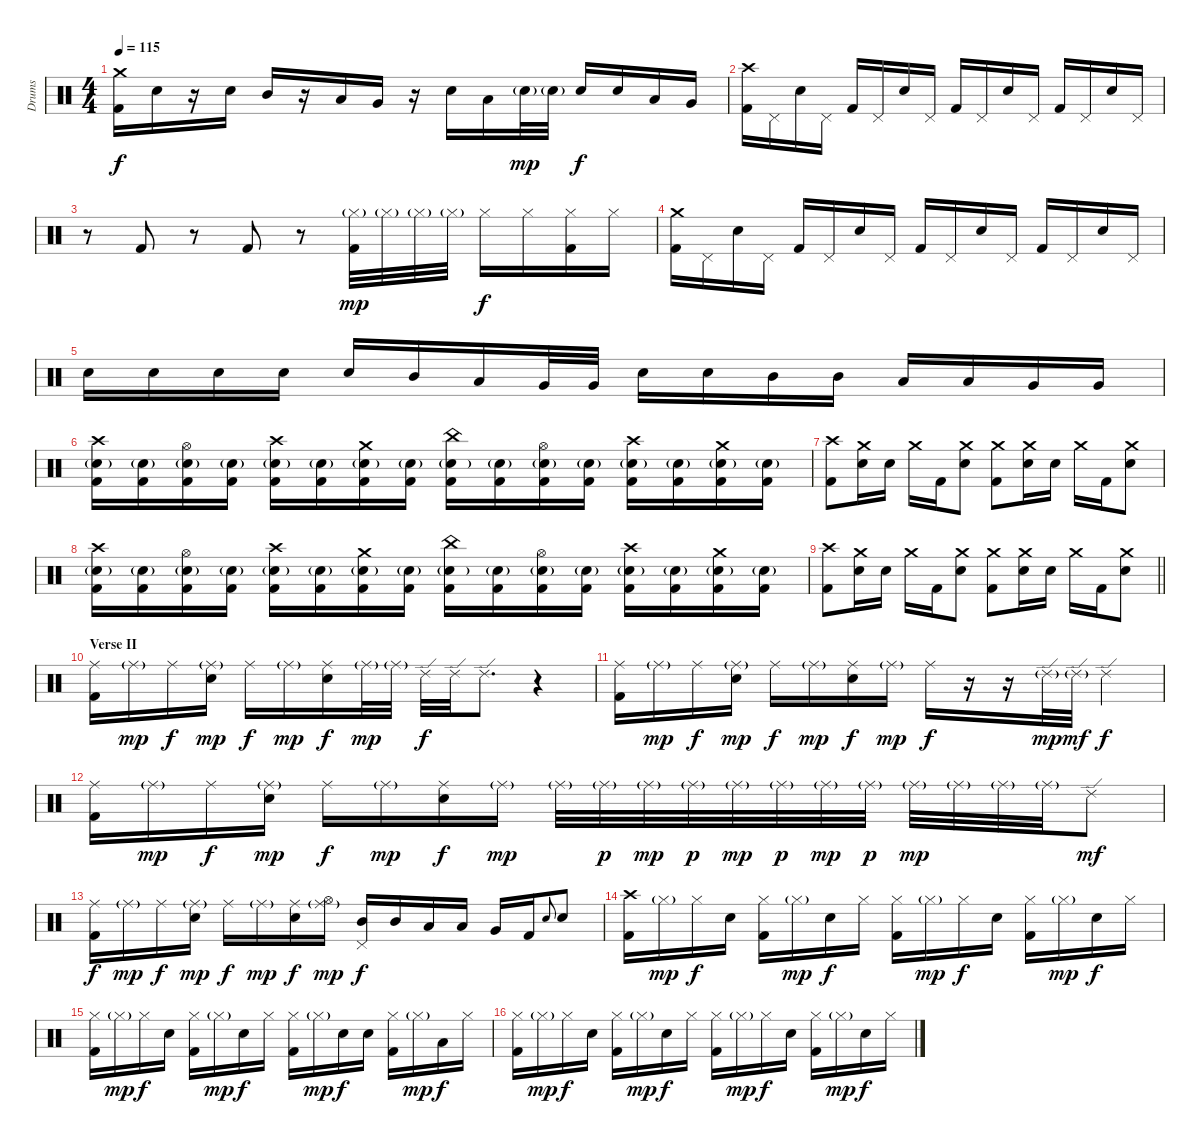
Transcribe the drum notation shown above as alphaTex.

\track ("Drums" "Drums") {instrument percussion}
\staff {score}
\articulation defaults
\ts (4 4)
\tempo 115
\clef neutral
\ks c
("Crash medium (hit)" "Kick (hit) 2").16{dy f} "Electric Snare (hit)".16 r.16 "Electric Snare (hit)".16 "Mid Tom (hit)".16 r.16 "Low Tom (hit)".16 "Very Low Tom (hit)".16 r.16 "Electric Snare (hit)".16 "Low Tom (hit)".16 "Electric Snare (hit)"{g}.32{dy mp} "Electric Snare (hit)"{g}.32 "Electric Snare (hit)".16{dy f} "Electric Snare (hit)".16 "Low Tom (hit)".16 "Very Low Tom (hit)".16 |
("Crash high (hit)" "Kick (hit) 2").16 "Pedal Hi-Hat (hit)".16 "Electric Snare (hit)".16 "Pedal Hi-Hat (hit)".16 "Kick (hit) 2".16 "Pedal Hi-Hat (hit)".16 "Electric Snare (hit)".16 "Pedal Hi-Hat (hit)".16 "Kick (hit) 2".16 "Pedal Hi-Hat (hit)".16 "Electric Snare (hit)".16 "Pedal Hi-Hat (hit)".16 "Kick (hit) 2".16 "Pedal Hi-Hat (hit)".16 "Electric Snare (hit)".16 "Pedal Hi-Hat (hit)".16 |
r.8 "Kick (hit) 2".8 r.8 "Kick (hit) 2".8 r.8 ("Hi-Hat (closed)"{g} "Kick (hit) 2").32{dy mp} "Hi-Hat (closed)"{g}.32 "Hi-Hat (closed)"{g}.32 "Hi-Hat (closed)"{g}.32 "Hi-Hat (closed)".16{dy f} "Hi-Hat (closed)".16 ("Hi-Hat (closed)" "Kick (hit) 2").16 "Hi-Hat (closed)".16 |
("Crash medium (hit)" "Kick (hit) 2").16 "Pedal Hi-Hat (hit)".16 "Electric Snare (hit)".16 "Pedal Hi-Hat (hit)".16 "Kick (hit) 2".16 "Pedal Hi-Hat (hit)".16 "Electric Snare (hit)".16 "Pedal Hi-Hat (hit)".16 "Kick (hit) 2".16 "Pedal Hi-Hat (hit)".16 "Electric Snare (hit)".16 "Pedal Hi-Hat (hit)".16 "Kick (hit) 2".16 "Pedal Hi-Hat (hit)".16 "Electric Snare (hit)".16 "Pedal Hi-Hat (hit)".16 |
"Electric Snare (hit)".16 "Electric Snare (hit)".16 "Electric Snare (hit)".16 "Electric Snare (hit)".16 "Electric Snare (hit)".16 "Mid Tom (hit)".16 "Low Tom (hit)".16 "Very Low Tom (hit)".32 "Very Low Tom (hit)".32 "Electric Snare (hit)".16 "Electric Snare (hit)".16 "Mid Tom (hit)".16 "Mid Tom (hit)".16 "Low Tom (hit)".16 "Low Tom (hit)".16 "Very Low Tom (hit)".16 "Very Low Tom (hit)".16 |
("Crash high (hit)" "Electric Snare (hit)"{g} "Kick (hit) 2").16 ("Electric Snare (hit)"{g} "Kick (hit) 2").16 ("Hi-Hat (open)" "Electric Snare (hit)"{g} "Kick (hit) 2").16 ("Electric Snare (hit)"{g} "Kick (hit) 2").16 ("Crash high (hit)" "Electric Snare (hit)"{g} "Kick (hit) 2").16 ("Electric Snare (hit)"{g} "Kick (hit) 2").16 ("Crash medium (hit)" "Electric Snare (hit)"{g} "Kick (hit) 2").16 ("Electric Snare (hit)"{g} "Kick (hit) 2").16 ("China (hit)" "Electric Snare (hit)"{g} "Kick (hit) 2").16 ("Electric Snare (hit)"{g} "Kick (hit) 2").16 ("Hi-Hat (open)" "Electric Snare (hit)"{g} "Kick (hit) 2").16 ("Electric Snare (hit)"{g} "Kick (hit) 2").16 ("Crash high (hit)" "Electric Snare (hit)"{g} "Kick (hit) 2").16 ("Electric Snare (hit)"{g} "Kick (hit) 2").16 ("Crash medium (hit)" "Electric Snare (hit)"{g} "Kick (hit) 2").16 ("Electric Snare (hit)"{g} "Kick (hit) 2").16 |
("Crash high (hit)" "Kick (hit) 2").8 ("Crash medium (hit)" "Electric Snare (hit)").16 "Electric Snare (hit)".16 "Crash medium (hit)".16 "Kick (hit) 2".16 ("Crash medium (hit)" "Electric Snare (hit)").8 ("Crash medium (hit)" "Kick (hit) 2").8 ("Crash medium (hit)" "Electric Snare (hit)").16 "Electric Snare (hit)".16 "Crash medium (hit)".16 "Kick (hit) 2".16 ("Crash medium (hit)" "Electric Snare (hit)").8 |
("Crash high (hit)" "Electric Snare (hit)"{g} "Kick (hit) 2").16 ("Electric Snare (hit)"{g} "Kick (hit) 2").16 ("Hi-Hat (open)" "Electric Snare (hit)"{g} "Kick (hit) 2").16 ("Electric Snare (hit)"{g} "Kick (hit) 2").16 ("Crash high (hit)" "Electric Snare (hit)"{g} "Kick (hit) 2").16 ("Electric Snare (hit)"{g} "Kick (hit) 2").16 ("Crash medium (hit)" "Electric Snare (hit)"{g} "Kick (hit) 2").16 ("Electric Snare (hit)"{g} "Kick (hit) 2").16 ("China (hit)" "Electric Snare (hit)"{g} "Kick (hit) 2").16 ("Electric Snare (hit)"{g} "Kick (hit) 2").16 ("Hi-Hat (open)" "Electric Snare (hit)"{g} "Kick (hit) 2").16 ("Electric Snare (hit)"{g} "Kick (hit) 2").16 ("Crash high (hit)" "Electric Snare (hit)"{g} "Kick (hit) 2").16 ("Electric Snare (hit)"{g} "Kick (hit) 2").16 ("Crash medium (hit)" "Electric Snare (hit)"{g} "Kick (hit) 2").16 ("Electric Snare (hit)"{g} "Kick (hit) 2").16 |
\barLineRight lightlight
("Crash high (hit)" "Kick (hit) 2").8 ("Crash medium (hit)" "Electric Snare (hit)").16 "Electric Snare (hit)".16 "Crash medium (hit)".16 "Kick (hit) 2".16 ("Crash medium (hit)" "Electric Snare (hit)").8 ("Crash medium (hit)" "Kick (hit) 2").8 ("Crash medium (hit)" "Electric Snare (hit)").16 "Electric Snare (hit)".16 "Crash medium (hit)".16 "Kick (hit) 2".16 ("Crash medium (hit)" "Electric Snare (hit)").8 |
\section ("" "Verse II")
("Ride (middle)" "Kick (hit) 2").16 "Ride (middle)"{g}.16{dy mp} "Ride (middle)".16{dy f} ("Ride (middle)"{g} "Electric Snare (hit)").16{dy mp} "Ride (middle)".16{dy f} "Ride (middle)"{g}.16{dy mp} ("Ride (middle)" "Electric Snare (hit)").16{dy f} "Ride (middle)"{g}.32{dy mp} "Ride (middle)"{g}.32 "Ride (edge) 2".32{dy f} "Ride (edge) 2".32 "Ride (edge) 2".8{d} r.4 |
("Ride (middle)" "Kick (hit) 2").16 "Ride (middle)"{g}.16{dy mp} "Ride (middle)".16{dy f} ("Ride (middle)"{g} "Electric Snare (hit)").16{dy mp} "Ride (middle)".16{dy f} "Ride (middle)"{g}.16{dy mp} ("Ride (middle)" "Electric Snare (hit)").16{dy f} "Ride (middle)"{g}.16{dy mp} "Ride (middle)".16{dy f} r.16 r.16 "Ride (edge) 2"{g}.32{dy mp} "Ride (edge) 2"{g}.32{dy mf} "Ride (edge) 2".4{dy f} |
("Ride (middle)" "Kick (hit) 2").16 "Ride (middle)"{g}.16{dy mp} "Ride (middle)".16{dy f} ("Ride (middle)"{g} "Electric Snare (hit)").16{dy mp} "Ride (middle)".16{dy f} "Ride (middle)"{g}.16{dy mp} ("Ride (middle)" "Electric Snare (hit)").16{dy f} "Ride (middle)"{g}.16{dy mp} "Ride (middle)"{g}.32 "Ride (middle)"{g}.32{dy p} "Ride (middle)"{g}.32{dy mp} "Ride (middle)"{g}.32{dy p} "Ride (middle)"{g}.32{dy mp} "Ride (middle)"{g}.32{dy p} "Ride (middle)"{g}.32{dy mp} "Ride (middle)"{g}.32{dy p} "Ride (middle)"{g}.32{dy mp} "Ride (middle)"{g}.32 "Ride (middle)"{g}.32 "Ride (middle)"{g}.32 "Ride (edge) 2".8{dy mf} |
("Ride (middle)" "Kick (hit) 2").16{dy f} "Ride (middle)"{g}.16{dy mp} "Ride (middle)".16{dy f} ("Ride (middle)"{g} "Electric Snare (hit)").16{dy mp} "Ride (middle)".16{dy f} "Ride (middle)"{g}.16{dy mp} ("Ride (middle)" "Electric Snare (hit)").16{dy f} ("Ride (middle)"{g} "Hi-Hat (open)").16{dy mp} ("Mid Tom (hit)" "Pedal Hi-Hat (hit)").16{dy f} "Mid Tom (hit)".16 "Low Tom (hit)".16 "Low Tom (hit)".16 "Very Low Tom (hit)".16 "Kick (hit) 2".16 "Electric Snare (hit)".8{gr onbeat} "Electric Snare (hit)".8 |
("Crash high (hit)" "Kick (hit) 2").16 "Hi-Hat (closed)"{g}.16{dy mp} "Hi-Hat (closed)".16{dy f} "Electric Snare (hit)".16 ("Hi-Hat (closed)" "Kick (hit) 2").16 "Hi-Hat (closed)"{g}.16{dy mp} "Electric Snare (hit)".16{dy f} "Hi-Hat (closed)".16 ("Hi-Hat (closed)" "Kick (hit) 2").16 "Hi-Hat (closed)"{g}.16{dy mp} "Hi-Hat (closed)".16{dy f} "Electric Snare (hit)".16 ("Hi-Hat (closed)" "Kick (hit) 2").16 "Hi-Hat (closed)"{g}.16{dy mp} "Electric Snare (hit)".16{dy f} "Hi-Hat (closed)".16 |
("Hi-Hat (closed)" "Kick (hit) 2").16 "Hi-Hat (closed)"{g}.16{dy mp} "Hi-Hat (closed)".16{dy f} "Electric Snare (hit)".16 ("Hi-Hat (closed)" "Kick (hit) 2").16 "Hi-Hat (closed)"{g}.16{dy mp} "Electric Snare (hit)".16{dy f} "Hi-Hat (closed)".16 ("Hi-Hat (closed)" "Kick (hit) 2").16 "Hi-Hat (closed)"{g}.16{dy mp} "Electric Snare (hit)".16{dy f} "Electric Snare (hit)".16 ("Hi-Hat (closed)" "Kick (hit) 2").16 "Hi-Hat (closed)"{g}.16{dy mp} "Low Tom (hit)".16{dy f} "Hi-Hat (closed)".16 |
("Hi-Hat (closed)" "Kick (hit) 2").16 "Hi-Hat (closed)"{g}.16{dy mp} "Hi-Hat (closed)".16{dy f} "Electric Snare (hit)".16 ("Hi-Hat (closed)" "Kick (hit) 2").16 "Hi-Hat (closed)"{g}.16{dy mp} "Electric Snare (hit)".16{dy f} "Hi-Hat (closed)".16 ("Hi-Hat (closed)" "Kick (hit) 2").16 "Hi-Hat (closed)"{g}.16{dy mp} "Hi-Hat (closed)".16{dy f} "Electric Snare (hit)".16 ("Hi-Hat (closed)" "Kick (hit) 2").16 "Hi-Hat (closed)"{g}.16{dy mp} "Electric Snare (hit)".16{dy f} "Hi-Hat (closed)".16
